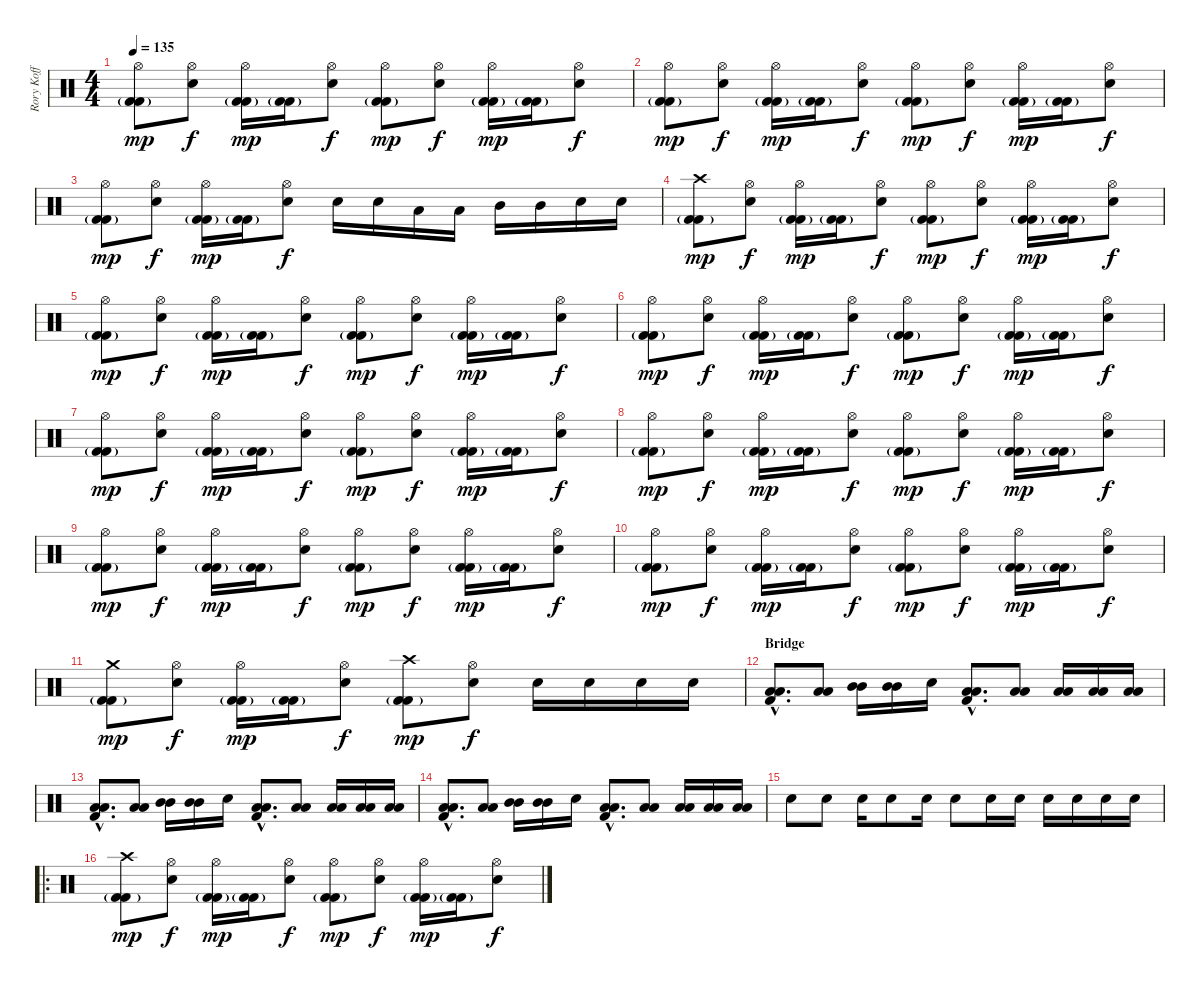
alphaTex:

\track ("Rory Koff" "Rory Koff") {instrument percussion}
\staff {score}
\articulation defaults
\ts (4 4)
\tempo 135
\clef neutral
\ks c
("Hi-Hat (open)" "Kick (hit) 2"{g} "Kick (hit) 2").8{dy mp} ("Hi-Hat (open)" "Snare (hit) 2").8{dy f} ("Hi-Hat (open)" "Kick (hit) 2"{g} "Kick (hit) 2").16{dy mp} ("Kick (hit) 2"{g} "Kick (hit) 2").16 ("Hi-Hat (open)" "Snare (hit) 2").8{dy f} ("Hi-Hat (open)" "Kick (hit) 2"{g} "Kick (hit) 2").8{dy mp} ("Hi-Hat (open)" "Snare (hit) 2").8{dy f} ("Hi-Hat (open)" "Kick (hit) 2"{g} "Kick (hit) 2").16{dy mp} ("Kick (hit) 2"{g} "Kick (hit) 2").16 ("Hi-Hat (open)" "Snare (hit) 2").8{dy f} |
("Hi-Hat (open)" "Kick (hit) 2"{g} "Kick (hit) 2").8{dy mp} ("Hi-Hat (open)" "Snare (hit) 2").8{dy f} ("Hi-Hat (open)" "Kick (hit) 2"{g} "Kick (hit) 2").16{dy mp} ("Kick (hit) 2"{g} "Kick (hit) 2").16 ("Hi-Hat (open)" "Snare (hit) 2").8{dy f} ("Hi-Hat (open)" "Kick (hit) 2"{g} "Kick (hit) 2").8{dy mp} ("Hi-Hat (open)" "Snare (hit) 2").8{dy f} ("Hi-Hat (open)" "Kick (hit) 2"{g} "Kick (hit) 2").16{dy mp} ("Kick (hit) 2"{g} "Kick (hit) 2").16 ("Hi-Hat (open)" "Snare (hit) 2").8{dy f} |
("Hi-Hat (open)" "Kick (hit) 2"{g} "Kick (hit) 2").8{dy mp} ("Hi-Hat (open)" "Snare (hit) 2").8{dy f} ("Hi-Hat (open)" "Kick (hit) 2"{g} "Kick (hit) 2").16{dy mp} ("Kick (hit) 2"{g} "Kick (hit) 2").16 ("Hi-Hat (open)" "Snare (hit) 2").8{dy f} "Snare (hit) 2".16 "Snare (hit) 2".16 "Low Tom (hit)".16 "Low Tom (hit)".16 "Mid Tom (hit)".16 "Mid Tom (hit)".16 "Snare (hit) 2".16 "Snare (hit) 2".16 |
("Crash high (hit)" "Kick (hit) 2"{g} "Kick (hit) 2").8{dy mp} ("Hi-Hat (open)" "Snare (hit) 2").8{dy f} ("Hi-Hat (open)" "Kick (hit) 2"{g} "Kick (hit) 2").16{dy mp} ("Kick (hit) 2"{g} "Kick (hit) 2").16 ("Hi-Hat (open)" "Snare (hit) 2").8{dy f} ("Hi-Hat (open)" "Kick (hit) 2"{g} "Kick (hit) 2").8{dy mp} ("Hi-Hat (open)" "Snare (hit) 2").8{dy f} ("Hi-Hat (open)" "Kick (hit) 2"{g} "Kick (hit) 2").16{dy mp} ("Kick (hit) 2"{g} "Kick (hit) 2").16 ("Hi-Hat (open)" "Snare (hit) 2").8{dy f} |
("Hi-Hat (open)" "Kick (hit) 2"{g} "Kick (hit) 2").8{dy mp} ("Hi-Hat (open)" "Snare (hit) 2").8{dy f} ("Hi-Hat (open)" "Kick (hit) 2"{g} "Kick (hit) 2").16{dy mp} ("Kick (hit) 2"{g} "Kick (hit) 2").16 ("Hi-Hat (open)" "Snare (hit) 2").8{dy f} ("Hi-Hat (open)" "Kick (hit) 2"{g} "Kick (hit) 2").8{dy mp} ("Hi-Hat (open)" "Snare (hit) 2").8{dy f} ("Hi-Hat (open)" "Kick (hit) 2"{g} "Kick (hit) 2").16{dy mp} ("Kick (hit) 2"{g} "Kick (hit) 2").16 ("Hi-Hat (open)" "Snare (hit) 2").8{dy f} |
("Hi-Hat (open)" "Kick (hit) 2"{g} "Kick (hit) 2").8{dy mp} ("Hi-Hat (open)" "Snare (hit) 2").8{dy f} ("Hi-Hat (open)" "Kick (hit) 2"{g} "Kick (hit) 2").16{dy mp} ("Kick (hit) 2"{g} "Kick (hit) 2").16 ("Hi-Hat (open)" "Snare (hit) 2").8{dy f} ("Hi-Hat (open)" "Kick (hit) 2"{g} "Kick (hit) 2").8{dy mp} ("Hi-Hat (open)" "Snare (hit) 2").8{dy f} ("Hi-Hat (open)" "Kick (hit) 2"{g} "Kick (hit) 2").16{dy mp} ("Kick (hit) 2"{g} "Kick (hit) 2").16 ("Hi-Hat (open)" "Snare (hit) 2").8{dy f} |
("Hi-Hat (open)" "Kick (hit) 2"{g} "Kick (hit) 2").8{dy mp} ("Hi-Hat (open)" "Snare (hit) 2").8{dy f} ("Hi-Hat (open)" "Kick (hit) 2"{g} "Kick (hit) 2").16{dy mp} ("Kick (hit) 2"{g} "Kick (hit) 2").16 ("Hi-Hat (open)" "Snare (hit) 2").8{dy f} ("Hi-Hat (open)" "Kick (hit) 2"{g} "Kick (hit) 2").8{dy mp} ("Hi-Hat (open)" "Snare (hit) 2").8{dy f} ("Hi-Hat (open)" "Kick (hit) 2"{g} "Kick (hit) 2").16{dy mp} ("Kick (hit) 2"{g} "Kick (hit) 2").16 ("Hi-Hat (open)" "Snare (hit) 2").8{dy f} |
("Hi-Hat (open)" "Kick (hit) 2"{g} "Kick (hit) 2").8{dy mp} ("Hi-Hat (open)" "Snare (hit) 2").8{dy f} ("Hi-Hat (open)" "Kick (hit) 2"{g} "Kick (hit) 2").16{dy mp} ("Kick (hit) 2"{g} "Kick (hit) 2").16 ("Hi-Hat (open)" "Snare (hit) 2").8{dy f} ("Hi-Hat (open)" "Kick (hit) 2"{g} "Kick (hit) 2").8{dy mp} ("Hi-Hat (open)" "Snare (hit) 2").8{dy f} ("Hi-Hat (open)" "Kick (hit) 2"{g} "Kick (hit) 2").16{dy mp} ("Kick (hit) 2"{g} "Kick (hit) 2").16 ("Hi-Hat (open)" "Snare (hit) 2").8{dy f} |
("Hi-Hat (open)" "Kick (hit) 2"{g} "Kick (hit) 2").8{dy mp} ("Hi-Hat (open)" "Snare (hit) 2").8{dy f} ("Hi-Hat (open)" "Kick (hit) 2"{g} "Kick (hit) 2").16{dy mp} ("Kick (hit) 2"{g} "Kick (hit) 2").16 ("Hi-Hat (open)" "Snare (hit) 2").8{dy f} ("Hi-Hat (open)" "Kick (hit) 2"{g} "Kick (hit) 2").8{dy mp} ("Hi-Hat (open)" "Snare (hit) 2").8{dy f} ("Hi-Hat (open)" "Kick (hit) 2"{g} "Kick (hit) 2").16{dy mp} ("Kick (hit) 2"{g} "Kick (hit) 2").16 ("Hi-Hat (open)" "Snare (hit) 2").8{dy f} |
("Hi-Hat (open)" "Kick (hit) 2"{g} "Kick (hit) 2").8{dy mp} ("Hi-Hat (open)" "Snare (hit) 2").8{dy f} ("Hi-Hat (open)" "Kick (hit) 2"{g} "Kick (hit) 2").16{dy mp} ("Kick (hit) 2"{g} "Kick (hit) 2").16 ("Hi-Hat (open)" "Snare (hit) 2").8{dy f} ("Hi-Hat (open)" "Kick (hit) 2"{g} "Kick (hit) 2").8{dy mp} ("Hi-Hat (open)" "Snare (hit) 2").8{dy f} ("Hi-Hat (open)" "Kick (hit) 2"{g} "Kick (hit) 2").16{dy mp} ("Kick (hit) 2"{g} "Kick (hit) 2").16 ("Hi-Hat (open)" "Snare (hit) 2").8{dy f} |
("Crash medium (hit)" "Kick (hit) 2"{g} "Kick (hit) 2").8{dy mp} ("Hi-Hat (open)" "Snare (hit) 2").8{dy f} ("Hi-Hat (open)" "Kick (hit) 2"{g} "Kick (hit) 2").16{dy mp} ("Kick (hit) 2"{g} "Kick (hit) 2").16 ("Hi-Hat (open)" "Snare (hit) 2").8{dy f} ("Crash high (hit)" "Kick (hit) 2"{g} "Kick (hit) 2").8{dy mp} ("Hi-Hat (open)" "Snare (hit) 2").8{dy f} "Snare (hit) 2".16 "Snare (hit) 2".16 "Snare (hit) 2".16 "Snare (hit) 2".16 |
\section ("" "Bridge")
("Low Tom (hit)"{hac} "Low Tom (hit)"{hac} "Kick (hit) 2"{hac}).8{d} ("Low Tom (hit)" "Low Tom (hit)").8 ("Mid Tom (hit)" "Mid Tom (hit)").16 ("Mid Tom (hit)" "Mid Tom (hit)").16 "Snare (hit) 2".16 ("Low Tom (hit)"{hac} "Low Tom (hit)"{hac} "Kick (hit) 2"{hac}).8{d} ("Low Tom (hit)" "Low Tom (hit)").8 ("Low Tom (hit)" "Low Tom (hit)").16 ("Low Tom (hit)" "Low Tom (hit)").16 ("Low Tom (hit)" "Low Tom (hit)").16 |
("Low Tom (hit)"{hac} "Low Tom (hit)"{hac} "Kick (hit) 2"{hac}).8{d} ("Low Tom (hit)" "Low Tom (hit)").8 ("Mid Tom (hit)" "Mid Tom (hit)").16 ("Mid Tom (hit)" "Mid Tom (hit)").16 "Snare (hit) 2".16 ("Low Tom (hit)"{hac} "Low Tom (hit)"{hac} "Kick (hit) 2"{hac}).8{d} ("Low Tom (hit)" "Low Tom (hit)").8 ("Low Tom (hit)" "Low Tom (hit)").16 ("Low Tom (hit)" "Low Tom (hit)").16 ("Low Tom (hit)" "Low Tom (hit)").16 |
("Low Tom (hit)"{hac} "Low Tom (hit)"{hac} "Kick (hit) 2"{hac}).8{d} ("Low Tom (hit)" "Low Tom (hit)").8 ("Mid Tom (hit)" "Mid Tom (hit)").16 ("Mid Tom (hit)" "Mid Tom (hit)").16 "Snare (hit) 2".16 ("Low Tom (hit)"{hac} "Low Tom (hit)"{hac} "Kick (hit) 2"{hac}).8{d} ("Low Tom (hit)" "Low Tom (hit)").8 ("Low Tom (hit)" "Low Tom (hit)").16 ("Low Tom (hit)" "Low Tom (hit)").16 ("Low Tom (hit)" "Low Tom (hit)").16 |
"Snare (hit) 2".8 "Snare (hit) 2".8 "Snare (hit) 2".16 "Snare (hit) 2".8 "Snare (hit) 2".16 "Snare (hit) 2".8 "Snare (hit) 2".16 "Snare (hit) 2".16 "Snare (hit) 2".16 "Snare (hit) 2".16 "Snare (hit) 2".16 "Snare (hit) 2".16 |
\ro
("Crash high (hit)" "Kick (hit) 2"{g} "Kick (hit) 2").8{dy mp} ("Hi-Hat (open)" "Snare (hit) 2").8{dy f} ("Hi-Hat (open)" "Kick (hit) 2"{g} "Kick (hit) 2").16{dy mp} ("Kick (hit) 2"{g} "Kick (hit) 2").16 ("Hi-Hat (open)" "Snare (hit) 2").8{dy f} ("Hi-Hat (open)" "Kick (hit) 2"{g} "Kick (hit) 2").8{dy mp} ("Hi-Hat (open)" "Snare (hit) 2").8{dy f} ("Hi-Hat (open)" "Kick (hit) 2"{g} "Kick (hit) 2").16{dy mp} ("Kick (hit) 2"{g} "Kick (hit) 2").16 ("Hi-Hat (open)" "Snare (hit) 2").8{dy f}
